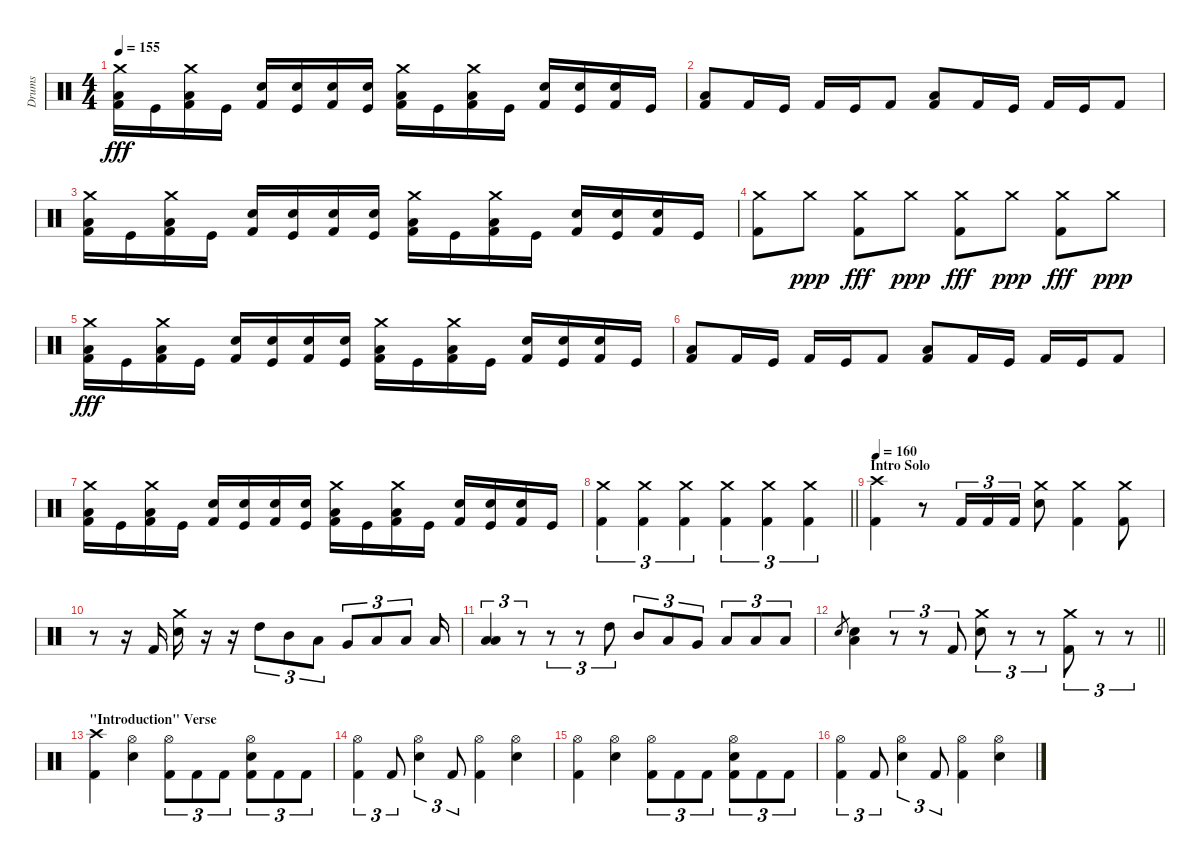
\track ("Drums" "Drums") {instrument percussion}
\staff {score}
\articulation defaults
\ts (4 4)
\tempo 155
\clef neutral
\ks c
("Crash medium (hit)" "Low Floor Tom (hit)" "Kick (hit) 2").16{dy fff} "Kick (hit)".16 ("Crash medium (hit)" "Low Floor Tom (hit)" "Kick (hit) 2").16 "Kick (hit)".16 ("Snare (hit) 2" "Kick (hit) 2").16 ("Snare (hit) 2" "Kick (hit)").16 ("Snare (hit) 2" "Kick (hit) 2").16 ("Snare (hit) 2" "Kick (hit)").16 ("Crash medium (hit)" "Low Floor Tom (hit)" "Kick (hit) 2").16 "Kick (hit)".16 ("Crash medium (hit)" "Low Floor Tom (hit)" "Kick (hit) 2").16 "Kick (hit)".16 ("Snare (hit) 2" "Kick (hit) 2").16 ("Snare (hit) 2" "Kick (hit)").16 ("Snare (hit) 2" "Kick (hit) 2").16 "Kick (hit)".16 |
("Low Floor Tom (hit)" "Kick (hit) 2").8 "Kick (hit) 2".16 "Kick (hit)".16 "Kick (hit) 2".16 "Kick (hit)".16 "Kick (hit) 2".8 ("Low Floor Tom (hit)" "Kick (hit) 2").8 "Kick (hit) 2".16 "Kick (hit)".16 "Kick (hit) 2".16 "Kick (hit)".16 "Kick (hit) 2".8 |
("Crash medium (hit)" "Low Floor Tom (hit)" "Kick (hit) 2").16 "Kick (hit)".16 ("Crash medium (hit)" "Low Floor Tom (hit)" "Kick (hit) 2").16 "Kick (hit)".16 ("Snare (hit) 2" "Kick (hit) 2").16 ("Snare (hit) 2" "Kick (hit)").16 ("Snare (hit) 2" "Kick (hit) 2").16 ("Snare (hit) 2" "Kick (hit)").16 ("Crash medium (hit)" "Low Floor Tom (hit)" "Kick (hit) 2").16 "Kick (hit)".16 ("Crash medium (hit)" "Low Floor Tom (hit)" "Kick (hit) 2").16 "Kick (hit)".16 ("Snare (hit) 2" "Kick (hit) 2").16 ("Snare (hit) 2" "Kick (hit)").16 ("Snare (hit) 2" "Kick (hit) 2").16 "Kick (hit)".16 |
("Crash medium (hit)" "Kick (hit) 2").8 "Crash medium (hit)".8{dy ppp} ("Crash medium (hit)" "Kick (hit) 2").8{dy fff} "Crash medium (hit)".8{dy ppp} ("Crash medium (hit)" "Kick (hit) 2").8{dy fff} "Crash medium (hit)".8{dy ppp} ("Crash medium (hit)" "Kick (hit) 2").8{dy fff} "Crash medium (hit)".8{dy ppp} |
("Crash medium (hit)" "Low Floor Tom (hit)" "Kick (hit) 2").16{dy fff} "Kick (hit)".16 ("Crash medium (hit)" "Low Floor Tom (hit)" "Kick (hit) 2").16 "Kick (hit)".16 ("Snare (hit) 2" "Kick (hit) 2").16 ("Snare (hit) 2" "Kick (hit)").16 ("Snare (hit) 2" "Kick (hit) 2").16 ("Snare (hit) 2" "Kick (hit)").16 ("Crash medium (hit)" "Low Floor Tom (hit)" "Kick (hit) 2").16 "Kick (hit)".16 ("Crash medium (hit)" "Low Floor Tom (hit)" "Kick (hit) 2").16 "Kick (hit)".16 ("Snare (hit) 2" "Kick (hit) 2").16 ("Snare (hit) 2" "Kick (hit)").16 ("Snare (hit) 2" "Kick (hit) 2").16 "Kick (hit)".16 |
("Low Floor Tom (hit)" "Kick (hit) 2").8 "Kick (hit) 2".16 "Kick (hit)".16 "Kick (hit) 2".16 "Kick (hit)".16 "Kick (hit) 2".8 ("Low Floor Tom (hit)" "Kick (hit) 2").8 "Kick (hit) 2".16 "Kick (hit)".16 "Kick (hit) 2".16 "Kick (hit)".16 "Kick (hit) 2".8 |
("Crash medium (hit)" "Low Floor Tom (hit)" "Kick (hit) 2").16 "Kick (hit)".16 ("Crash medium (hit)" "Low Floor Tom (hit)" "Kick (hit) 2").16 "Kick (hit)".16 ("Snare (hit) 2" "Kick (hit) 2").16 ("Snare (hit) 2" "Kick (hit)").16 ("Snare (hit) 2" "Kick (hit) 2").16 ("Snare (hit) 2" "Kick (hit)").16 ("Crash medium (hit)" "Low Floor Tom (hit)" "Kick (hit) 2").16 "Kick (hit)".16 ("Crash medium (hit)" "Low Floor Tom (hit)" "Kick (hit) 2").16 "Kick (hit)".16 ("Snare (hit) 2" "Kick (hit) 2").16 ("Snare (hit) 2" "Kick (hit)").16 ("Snare (hit) 2" "Kick (hit) 2").16 "Kick (hit)".16 |
\barLineRight lightlight
("Crash medium (hit)" "Kick (hit) 2").4{tu (3 2)} ("Crash medium (hit)" "Kick (hit) 2").4{tu (3 2)} ("Crash medium (hit)" "Kick (hit) 2").4{tu (3 2)} ("Crash medium (hit)" "Kick (hit) 2").4{tu (3 2)} ("Crash medium (hit)" "Kick (hit) 2").4{tu (3 2)} ("Crash medium (hit)" "Kick (hit) 2").4{tu (3 2)} |
\section ("" "Intro Solo")
\tempo 160
("Crash high (hit)" "Kick (hit) 2").4 r.8 "Kick (hit) 2".16{tu (3 2)} "Kick (hit) 2".16{tu (3 2)} "Kick (hit) 2".16{tu (3 2)} ("Crash medium (hit)" "Snare (hit) 2").8 ("Crash medium (hit)" "Kick (hit) 2").4 ("Crash medium (hit)" "Kick (hit) 2").8 |
r.8 r.16 "Kick (hit) 2".16 ("Crash medium (hit)" "Snare (hit) 2").16 r.16 r.16 "High Tom (hit)".8{tu (3 2)} "Mid Tom (hit)".8{tu (3 2)} "Low Tom (hit)".8{tu (3 2)} "Very Low Tom (hit)".8{tu (3 2)} "Low Floor Tom (hit)".8{tu (3 2)} "Low Floor Tom (hit)".8{tu (3 2)} "Low Floor Tom (hit)".16 |
("Low Tom (hit)" "Low Floor Tom (hit)").4{tu (3 2)} r.8{tu (3 2)} r.8{tu (3 2)} r.8{tu (3 2)} "High Tom (hit)".8{tu (3 2)} "Mid Tom (hit)".8{tu (3 2)} "Low Tom (hit)".8{tu (3 2)} "Very Low Tom (hit)".8{tu (3 2)} "Low Floor Tom (hit)".8{tu (3 2)} "Low Floor Tom (hit)".8{tu (3 2)} "Low Floor Tom (hit)".8{tu (3 2)} |
\barLineRight lightlight "Snare (hit) 2".8{gr}
("Snare (hit) 2" "Low Floor Tom (hit)").4 r.8{tu (3 2)} r.8{tu (3 2)} "Kick (hit) 2".8{tu (3 2)} ("Crash medium (hit)" "Snare (hit) 2").8{tu (3 2)} r.8{tu (3 2)} r.8{tu (3 2)} ("Crash medium (hit)" "Kick (hit) 2").8{tu (3 2)} r.8{tu (3 2)} r.8{tu (3 2)} |
\section ("" "\"Introduction\" Verse ")
("Crash high (hit)" "Kick (hit) 2").4 ("Hi-Hat (open)" "Snare (hit) 2").4 ("Hi-Hat (open)" "Kick (hit) 2").8{tu (3 2)} "Kick (hit) 2".8{tu (3 2)} "Kick (hit) 2".8{tu (3 2)} ("Hi-Hat (open)" "Snare (hit) 2" "Kick (hit) 2").8{tu (3 2)} "Kick (hit) 2".8{tu (3 2)} "Kick (hit) 2".8{tu (3 2)} |
("Hi-Hat (open)" "Kick (hit) 2").4{tu (3 2)} "Kick (hit) 2".8{tu (3 2)} ("Hi-Hat (open)" "Snare (hit) 2").4{tu (3 2)} "Kick (hit) 2".8{tu (3 2)} ("Hi-Hat (open)" "Kick (hit) 2").4 ("Hi-Hat (open)" "Snare (hit) 2").4 |
("Hi-Hat (open)" "Kick (hit) 2").4 ("Hi-Hat (open)" "Snare (hit) 2").4 ("Hi-Hat (open)" "Kick (hit) 2").8{tu (3 2)} "Kick (hit) 2".8{tu (3 2)} "Kick (hit) 2".8{tu (3 2)} ("Hi-Hat (open)" "Snare (hit) 2" "Kick (hit) 2").8{tu (3 2)} "Kick (hit) 2".8{tu (3 2)} "Kick (hit) 2".8{tu (3 2)} |
("Hi-Hat (open)" "Kick (hit) 2").4{tu (3 2)} "Kick (hit) 2".8{tu (3 2)} ("Hi-Hat (open)" "Snare (hit) 2").4{tu (3 2)} "Kick (hit) 2".8{tu (3 2)} ("Hi-Hat (open)" "Kick (hit) 2").4 ("Hi-Hat (open)" "Snare (hit) 2").4
